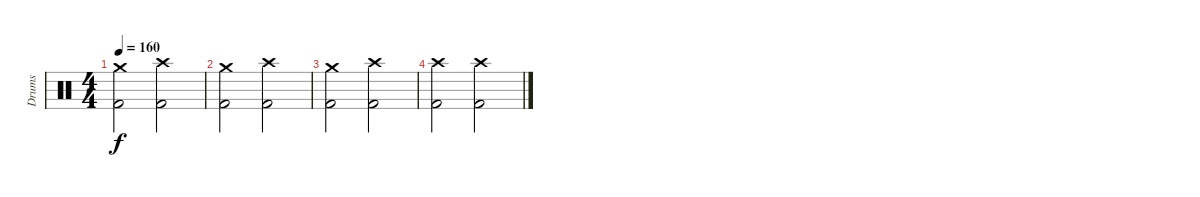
\track ("Drums" "Drums") {instrument percussion}
\staff {score}
\articulation defaults
\ts (4 4)
\tempo 160
\clef neutral
\ks c
("Crash medium (hit)" "Kick (hit) 2").2{dy f} ("Crash high (hit)" "Kick (hit) 2").2 |
("Crash medium (hit)" "Kick (hit) 2").2 ("Crash high (hit)" "Kick (hit) 2").2 |
("Crash medium (hit)" "Kick (hit) 2").2 ("Crash high (hit)" "Kick (hit) 2").2 |
("Crash high (hit)" "Kick (hit) 2").2 ("Crash high (hit)" "Kick (hit) 2").2
